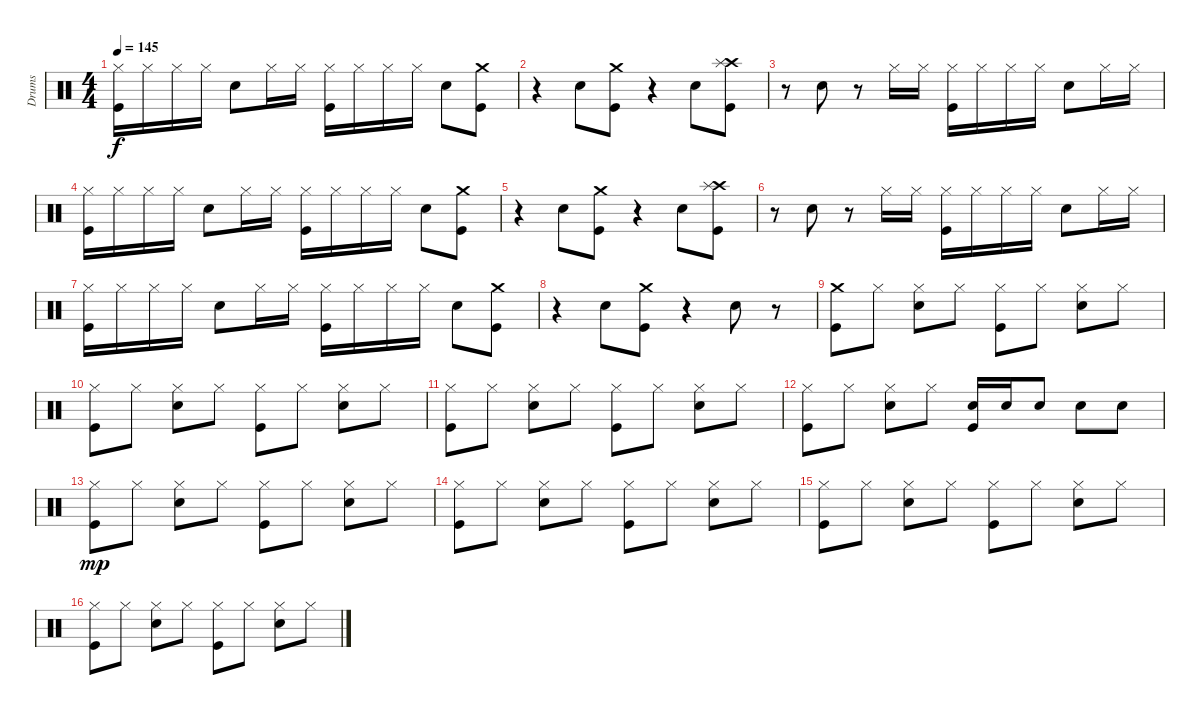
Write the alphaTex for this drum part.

\track ("Drums" "Drums") {instrument percussion}
\staff {score}
\articulation defaults
\ts (4 4)
\tempo 145
\clef neutral
\ks c
("Kick (hit)" "Hi-Hat (closed)").16{dy f} "Hi-Hat (closed)".16 "Hi-Hat (closed)".16 "Hi-Hat (closed)".16 "Snare (hit) 2".8 "Hi-Hat (closed)".16 "Hi-Hat (closed)".16 ("Kick (hit)" "Hi-Hat (closed)").16 "Hi-Hat (closed)".16 "Hi-Hat (closed)".16 "Hi-Hat (closed)".16 "Snare (hit) 2".8 ("Kick (hit)" "Crash medium (hit)").8 |
r.4 "Snare (hit) 2".8 ("Kick (hit)" "Crash medium (hit)").8 r.4 "Snare (hit) 2".8 ("Kick (hit)" "Crash high (hit)" "Splash (hit)").8 |
r.8 "Snare (hit) 2".8 r.8 "Hi-Hat (closed)".16 "Hi-Hat (closed)".16 ("Kick (hit)" "Hi-Hat (closed)").16 "Hi-Hat (closed)".16 "Hi-Hat (closed)".16 "Hi-Hat (closed)".16 "Snare (hit) 2".8 "Hi-Hat (closed)".16 "Hi-Hat (closed)".16 |
("Kick (hit)" "Hi-Hat (closed)").16 "Hi-Hat (closed)".16 "Hi-Hat (closed)".16 "Hi-Hat (closed)".16 "Snare (hit) 2".8 "Hi-Hat (closed)".16 "Hi-Hat (closed)".16 ("Kick (hit)" "Hi-Hat (closed)").16 "Hi-Hat (closed)".16 "Hi-Hat (closed)".16 "Hi-Hat (closed)".16 "Snare (hit) 2".8 ("Kick (hit)" "Crash medium (hit)").8 |
r.4 "Snare (hit) 2".8 ("Kick (hit)" "Crash medium (hit)").8 r.4 "Snare (hit) 2".8 ("Kick (hit)" "Crash high (hit)" "Splash (hit)").8 |
r.8 "Snare (hit) 2".8 r.8 "Hi-Hat (closed)".16 "Hi-Hat (closed)".16 ("Kick (hit)" "Hi-Hat (closed)").16 "Hi-Hat (closed)".16 "Hi-Hat (closed)".16 "Hi-Hat (closed)".16 "Snare (hit) 2".8 "Hi-Hat (closed)".16 "Hi-Hat (closed)".16 |
("Kick (hit)" "Hi-Hat (closed)").16 "Hi-Hat (closed)".16 "Hi-Hat (closed)".16 "Hi-Hat (closed)".16 "Snare (hit) 2".8 "Hi-Hat (closed)".16 "Hi-Hat (closed)".16 ("Kick (hit)" "Hi-Hat (closed)").16 "Hi-Hat (closed)".16 "Hi-Hat (closed)".16 "Hi-Hat (closed)".16 "Snare (hit) 2".8 ("Kick (hit)" "Crash medium (hit)").8 |
r.4 "Snare (hit) 2".8 ("Kick (hit)" "Crash medium (hit)").8 r.4 "Snare (hit) 2".8 r.8 |
("Kick (hit)" "Crash medium (hit)").8 "Hi-Hat (closed)".8 ("Snare (hit) 2" "Hi-Hat (closed)").8 "Hi-Hat (closed)".8 ("Kick (hit)" "Hi-Hat (closed)").8 "Hi-Hat (closed)".8 ("Snare (hit) 2" "Hi-Hat (closed)").8 "Hi-Hat (closed)".8 |
("Kick (hit)" "Hi-Hat (closed)").8 "Hi-Hat (closed)".8 ("Snare (hit) 2" "Hi-Hat (closed)").8 "Hi-Hat (closed)".8 ("Kick (hit)" "Hi-Hat (closed)").8 "Hi-Hat (closed)".8 ("Snare (hit) 2" "Hi-Hat (closed)").8 "Hi-Hat (closed)".8 |
("Kick (hit)" "Hi-Hat (closed)").8 "Hi-Hat (closed)".8 ("Snare (hit) 2" "Hi-Hat (closed)").8 "Hi-Hat (closed)".8 ("Kick (hit)" "Hi-Hat (closed)").8 "Hi-Hat (closed)".8 ("Snare (hit) 2" "Hi-Hat (closed)").8 "Hi-Hat (closed)".8 |
("Kick (hit)" "Hi-Hat (closed)").8 "Hi-Hat (closed)".8 ("Snare (hit) 2" "Hi-Hat (closed)").8 "Hi-Hat (closed)".8 ("Kick (hit)" "Snare (hit) 2").16 "Snare (hit) 2".16 "Snare (hit) 2".8 "Snare (hit) 2".8 "Snare (hit) 2".8 |
("Kick (hit)" "Hi-Hat (closed)").8{dy mp} "Hi-Hat (closed)".8 ("Snare (hit) 2" "Hi-Hat (closed)").8 "Hi-Hat (closed)".8 ("Kick (hit)" "Hi-Hat (closed)").8 "Hi-Hat (closed)".8 ("Snare (hit) 2" "Hi-Hat (closed)").8 "Hi-Hat (closed)".8 |
("Kick (hit)" "Hi-Hat (closed)").8 "Hi-Hat (closed)".8 ("Snare (hit) 2" "Hi-Hat (closed)").8 "Hi-Hat (closed)".8 ("Kick (hit)" "Hi-Hat (closed)").8 "Hi-Hat (closed)".8 ("Snare (hit) 2" "Hi-Hat (closed)").8 "Hi-Hat (closed)".8 |
("Kick (hit)" "Hi-Hat (closed)").8 "Hi-Hat (closed)".8 ("Snare (hit) 2" "Hi-Hat (closed)").8 "Hi-Hat (closed)".8 ("Kick (hit)" "Hi-Hat (closed)").8 "Hi-Hat (closed)".8 ("Snare (hit) 2" "Hi-Hat (closed)").8 "Hi-Hat (closed)".8 |
("Kick (hit)" "Hi-Hat (closed)").8 "Hi-Hat (closed)".8 ("Snare (hit) 2" "Hi-Hat (closed)").8 "Hi-Hat (closed)".8 ("Kick (hit)" "Hi-Hat (closed)").8 "Hi-Hat (closed)".8 ("Snare (hit) 2" "Hi-Hat (closed)").8 "Hi-Hat (closed)".8
